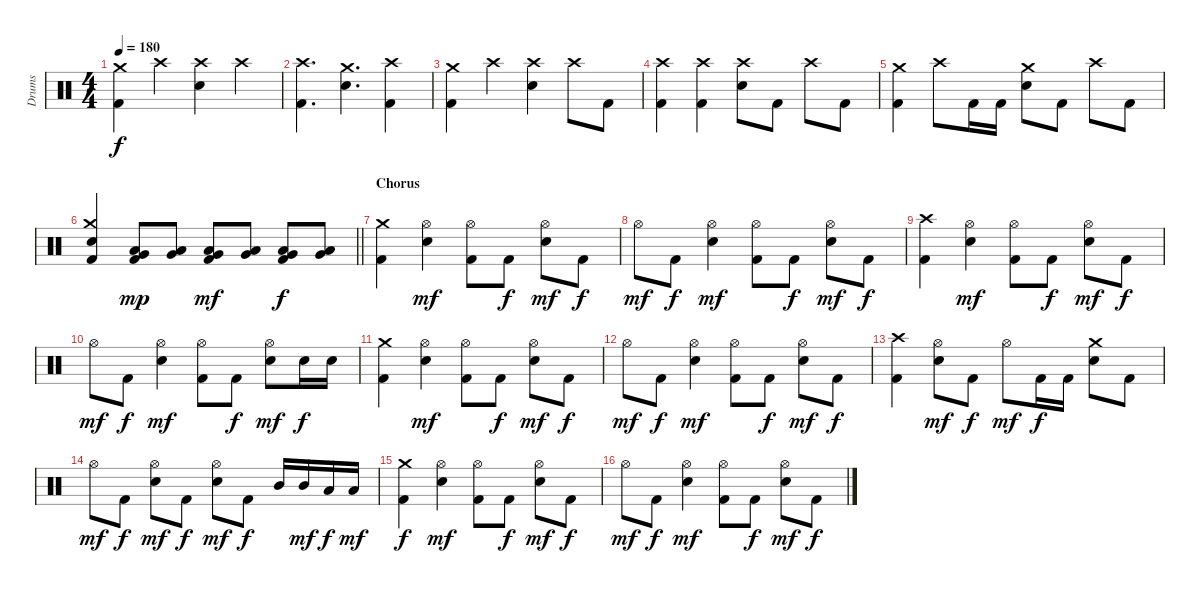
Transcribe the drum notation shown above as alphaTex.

\track ("Drums" "Drums") {instrument percussion}
\staff {score}
\articulation defaults
\ts (4 4)
\tempo 180
\clef neutral
\ks c
("Kick (hit) 2" "Crash medium (hit)").4{dy f} "Crash high (hit)".4 ("Crash high (hit)" "Electric Snare (hit)").4 "Crash high (hit)".4 |
("Kick (hit) 2" "Crash high (hit)").4{d} ("Crash medium (hit)" "Electric Snare (hit)").4{d} ("Kick (hit) 2" "Crash high (hit)").4 |
("Kick (hit) 2" "Crash medium (hit)").4 "Crash high (hit)".4 ("Crash high (hit)" "Electric Snare (hit)").4 "Crash high (hit)".8 "Kick (hit) 2".8 |
("Kick (hit) 2" "Crash high (hit)").4 ("Kick (hit) 2" "Crash high (hit)").4 ("Crash high (hit)" "Electric Snare (hit)").8 "Kick (hit) 2".8 "Crash high (hit)".8 "Kick (hit) 2".8 |
("Kick (hit) 2" "Crash medium (hit)").4 "Crash high (hit)".8 "Kick (hit) 2".16 "Kick (hit) 2".16 ("Crash medium (hit)" "Electric Snare (hit)").8 "Kick (hit) 2".8 "Crash high (hit)".8 "Kick (hit) 2".8 |
\barLineRight lightlight
("Kick (hit) 2" "Crash medium (hit)" "Electric Snare (hit)").4 ("Kick (hit) 2" "Very Low Tom (hit)" "Low Tom (hit)").8{dy mp} ("Very Low Tom (hit)" "Low Tom (hit)").8 ("Kick (hit) 2" "Very Low Tom (hit)" "Low Tom (hit)").8{dy mf} ("Very Low Tom (hit)" "Low Tom (hit)").8 ("Kick (hit) 2" "Very Low Tom (hit)" "Low Tom (hit)").8{dy f} ("Very Low Tom (hit)" "Low Tom (hit)").8 |
\section ("" "Chorus")
("Kick (hit) 2" "Crash medium (hit)").4 ("Hi-Hat (open)" "Electric Snare (hit)").4{dy mf} ("Kick (hit) 2" "Hi-Hat (open)").8 "Kick (hit) 2".8{dy f} ("Hi-Hat (open)" "Electric Snare (hit)").8{dy mf} "Kick (hit) 2".8{dy f} |
"Hi-Hat (open)".8{dy mf} "Kick (hit) 2".8{dy f} ("Hi-Hat (open)" "Electric Snare (hit)").4{dy mf} ("Kick (hit) 2" "Hi-Hat (open)").8 "Kick (hit) 2".8{dy f} ("Hi-Hat (open)" "Electric Snare (hit)").8{dy mf} "Kick (hit) 2".8{dy f} |
("Kick (hit) 2" "Crash high (hit)").4 ("Hi-Hat (open)" "Electric Snare (hit)").4{dy mf} ("Kick (hit) 2" "Hi-Hat (open)").8 "Kick (hit) 2".8{dy f} ("Hi-Hat (open)" "Electric Snare (hit)").8{dy mf} "Kick (hit) 2".8{dy f} |
"Hi-Hat (open)".8{dy mf} "Kick (hit) 2".8{dy f} ("Hi-Hat (open)" "Electric Snare (hit)").4{dy mf} ("Kick (hit) 2" "Hi-Hat (open)").8 "Kick (hit) 2".8{dy f} ("Hi-Hat (open)" "Electric Snare (hit)").8{dy mf} "Electric Snare (hit)".16{dy f} "Electric Snare (hit)".16 |
("Kick (hit) 2" "Crash medium (hit)").4 ("Hi-Hat (open)" "Electric Snare (hit)").4{dy mf} ("Kick (hit) 2" "Hi-Hat (open)").8 "Kick (hit) 2".8{dy f} ("Hi-Hat (open)" "Electric Snare (hit)").8{dy mf} "Kick (hit) 2".8{dy f} |
"Hi-Hat (open)".8{dy mf} "Kick (hit) 2".8{dy f} ("Hi-Hat (open)" "Electric Snare (hit)").4{dy mf} ("Kick (hit) 2" "Hi-Hat (open)").8 "Kick (hit) 2".8{dy f} ("Hi-Hat (open)" "Electric Snare (hit)").8{dy mf} "Kick (hit) 2".8{dy f} |
("Kick (hit) 2" "Crash high (hit)").4 ("Hi-Hat (open)" "Electric Snare (hit)").8{dy mf} "Kick (hit) 2".8{dy f} "Hi-Hat (open)".8{dy mf} "Kick (hit) 2".16{dy f} "Kick (hit) 2".16 ("Crash medium (hit)" "Electric Snare (hit)").8 "Kick (hit) 2".8 |
"Hi-Hat (open)".8{dy mf} "Kick (hit) 2".8{dy f} ("Hi-Hat (open)" "Electric Snare (hit)").8{dy mf} "Kick (hit) 2".8{dy f} ("Hi-Hat (open)" "Electric Snare (hit)").8{dy mf} "Kick (hit) 2".8{dy f} "Mid Tom (hit)".16 "Mid Tom (hit)".16{dy mf} "Low Tom (hit)".16{dy f} "Low Tom (hit)".16{dy mf} |
("Kick (hit) 2" "Crash medium (hit)").4{dy f} ("Hi-Hat (open)" "Electric Snare (hit)").4{dy mf} ("Kick (hit) 2" "Hi-Hat (open)").8 "Kick (hit) 2".8{dy f} ("Hi-Hat (open)" "Electric Snare (hit)").8{dy mf} "Kick (hit) 2".8{dy f} |
"Hi-Hat (open)".8{dy mf} "Kick (hit) 2".8{dy f} ("Hi-Hat (open)" "Electric Snare (hit)").4{dy mf} ("Kick (hit) 2" "Hi-Hat (open)").8 "Kick (hit) 2".8{dy f} ("Hi-Hat (open)" "Electric Snare (hit)").8{dy mf} "Kick (hit) 2".8{dy f}
